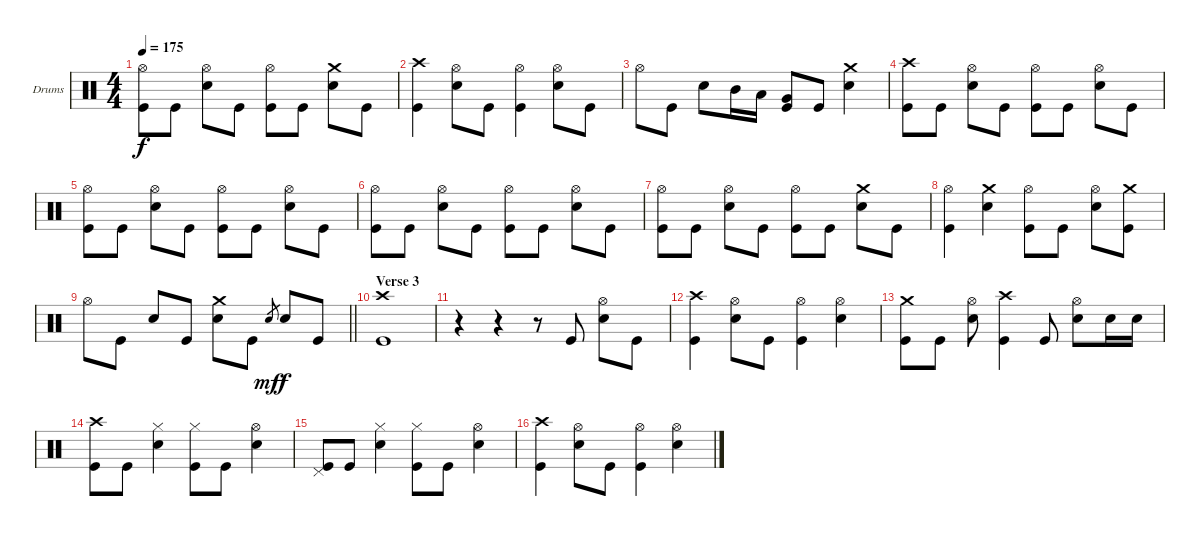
\bracketExtendMode groupsimilarinstruments
\firstSystemTrackNameOrientation horizontal
\otherSystemsTrackNameOrientation horizontal
\track ("Drumkit" "Drums") {instrument percussion}
\staff {score}
\articulation defaults
\ts (4 4)
\tempo 175
\clef neutral
\ks c
("Hi-Hat (open)" "Kick (hit)").8{dy f} "Kick (hit)".8 ("Hi-Hat (open)" "Snare (hit) 2").8 "Kick (hit)".8 ("Hi-Hat (open)" "Kick (hit)").8 "Kick (hit)".8 ("Crash medium (hit)" "Snare (hit) 2").8 "Kick (hit)".8 |
("Crash high (hit)" "Kick (hit)").4 ("Hi-Hat (open)" "Snare (hit) 2").8 "Kick (hit)".8 ("Hi-Hat (open)" "Kick (hit)").4 ("Hi-Hat (open)" "Snare (hit) 2").8 "Kick (hit)".8 |
"Hi-Hat (open)".8 "Kick (hit)".8 "Snare (hit) 2".8 "Mid Tom (hit)".16 "Low Tom (hit)".16 ("Very Low Tom (hit)" "Kick (hit)").8 "Kick (hit)".8 ("Crash medium (hit)" "Snare (hit) 2").4 |
("Crash high (hit)" "Kick (hit)").8 "Kick (hit)".8 ("Hi-Hat (open)" "Snare (hit) 2").8 "Kick (hit)".8 ("Hi-Hat (open)" "Kick (hit)").8 "Kick (hit)".8 ("Hi-Hat (open)" "Snare (hit) 2").8 "Kick (hit)".8 |
("Hi-Hat (open)" "Kick (hit)").8 "Kick (hit)".8 ("Hi-Hat (open)" "Snare (hit) 2").8 "Kick (hit)".8 ("Hi-Hat (open)" "Kick (hit)").8 "Kick (hit)".8 ("Hi-Hat (open)" "Snare (hit) 2").8 "Kick (hit)".8 |
("Hi-Hat (open)" "Kick (hit)").8 "Kick (hit)".8 ("Hi-Hat (open)" "Snare (hit) 2").8 "Kick (hit)".8 ("Hi-Hat (open)" "Kick (hit)").8 "Kick (hit)".8 ("Hi-Hat (open)" "Snare (hit) 2").8 "Kick (hit)".8 |
("Hi-Hat (open)" "Kick (hit)").8 "Kick (hit)".8 ("Hi-Hat (open)" "Snare (hit) 2").8 "Kick (hit)".8 ("Hi-Hat (open)" "Kick (hit)").8 "Kick (hit)".8 ("Crash medium (hit)" "Snare (hit) 2").8 "Kick (hit)".8 |
("Hi-Hat (open)" "Kick (hit)").4 ("Crash medium (hit)" "Snare (hit) 2").4 ("Hi-Hat (open)" "Kick (hit)").8 "Kick (hit)".8 ("Hi-Hat (open)" "Snare (hit) 2").8 ("Crash medium (hit)" "Kick (hit)").8 |
\barLineRight lightlight "Hi-Hat (open)".8 "Kick (hit)".8 "Snare (hit) 2".8 "Kick (hit)".8
("Crash medium (hit)" "Snare (hit) 2").8 "Kick (hit)".8 "Snare (hit) 2".8{gr dy mf} "Snare (hit) 2".8{dy f} "Kick (hit)".8 |
\section ("" "Verse 3")
("Crash high (hit)" "Kick (hit)").1 |
r.4 r.4 r.8 "Kick (hit)".8 ("Hi-Hat (open)" "Snare (hit) 2").8 "Kick (hit)".8 |
("Crash high (hit)" "Kick (hit)").4 ("Hi-Hat (open)" "Snare (hit) 2").8 "Kick (hit)".8 ("Hi-Hat (open)" "Kick (hit)").4 ("Hi-Hat (open)" "Snare (hit) 2").4 |
("Crash medium (hit)" "Kick (hit)").8 "Kick (hit)".8 ("Hi-Hat (open)" "Snare (hit) 2").8 ("Crash high (hit)" "Kick (hit)").4 "Kick (hit)".8 ("Hi-Hat (open)" "Snare (hit) 2").8 "Snare (hit) 2".16 "Snare (hit) 2".16 |
("Crash high (hit)" "Kick (hit)").8 "Kick (hit)".8 ("Hi-Hat (closed)" "Snare (hit) 2").4 ("Hi-Hat (closed)" "Kick (hit)").8 "Kick (hit)".8 ("Hi-Hat (open)" "Snare (hit) 2").4 |
("Pedal Hi-Hat (hit)" "Kick (hit)").8 "Kick (hit)".8 ("Hi-Hat (closed)" "Snare (hit) 2").4 ("Hi-Hat (closed)" "Kick (hit)").8 "Kick (hit)".8 ("Hi-Hat (open)" "Snare (hit) 2").4 |
("Crash high (hit)" "Kick (hit)").4 ("Hi-Hat (open)" "Snare (hit) 2").8 "Kick (hit)".8 ("Hi-Hat (open)" "Kick (hit)").4 ("Hi-Hat (open)" "Snare (hit) 2").4
